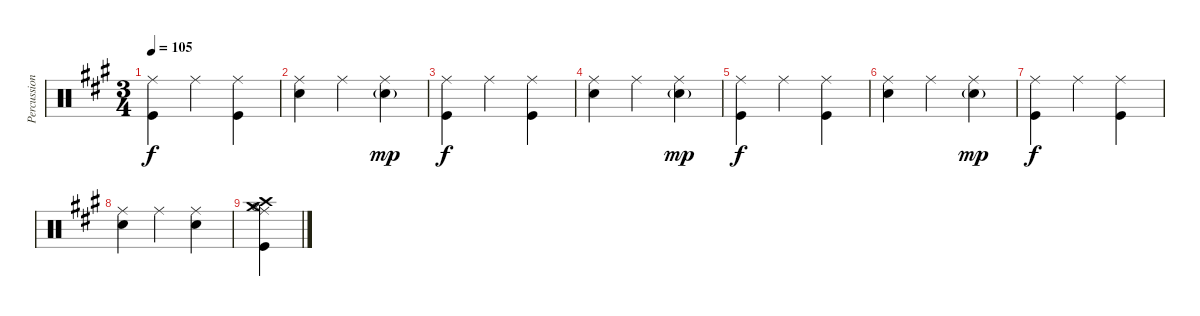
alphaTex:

\track ("Percussion" "Percussion") {instrument percussion}
\staff {score}
\articulation defaults
\ts (3 4)
\tempo 105
\clef neutral
\ks a
("Ride (middle)" "Kick (hit)").4{dy f} "Ride (middle)".4 ("Ride (middle)" "Kick (hit)").4 |
("Ride (middle)" "Snare (hit) 2").4 "Ride (middle)".4 ("Ride (middle)" "Snare (hit) 2"{g}).4{dy mp} |
("Ride (middle)" "Kick (hit)").4{dy f} "Ride (middle)".4 ("Ride (middle)" "Kick (hit)").4 |
("Ride (middle)" "Snare (hit) 2").4 "Ride (middle)".4 ("Ride (middle)" "Snare (hit) 2"{g}).4{dy mp} |
("Ride (middle)" "Kick (hit)").4{dy f} "Ride (middle)".4 ("Ride (middle)" "Kick (hit)").4 |
("Ride (middle)" "Snare (hit) 2").4 "Ride (middle)".4 ("Ride (middle)" "Snare (hit) 2"{g}).4{dy mp} |
("Ride (middle)" "Kick (hit)").4{dy f} "Ride (middle)".4 ("Ride (middle)" "Kick (hit)").4 |
("Ride (middle)" "Snare (hit) 2").4 "Ride (middle)".4 ("Ride (middle)" "Snare (hit) 2").4 |
("Ride (middle)" "Crash medium (hit)" "Hi-Hat (open)" "Crash high (hit)" "Kick (hit)").4
